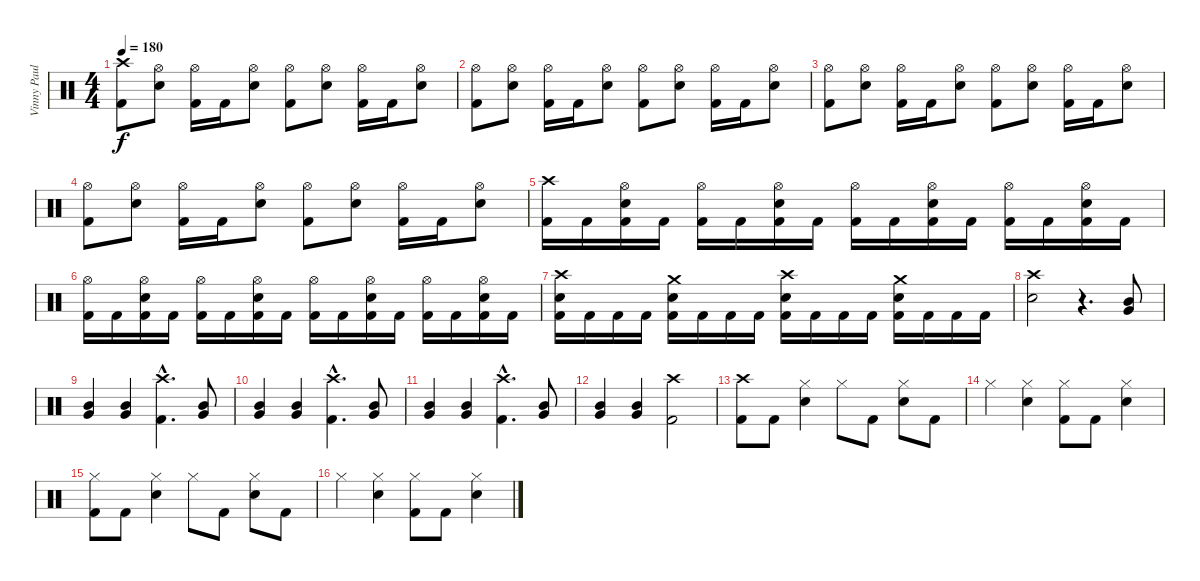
\track ("Vinny Paul" "Vinny Paul") {instrument percussion}
\staff {score}
\articulation defaults
\ts (4 4)
\tempo 180
\clef neutral
\ks c
("Crash high (hit)" "Kick (hit) 2").8{dy f} ("Hi-Hat (open)" "Electric Snare (hit)").8 ("Hi-Hat (open)" "Kick (hit) 2").16 "Kick (hit) 2".16 ("Hi-Hat (open)" "Electric Snare (hit)").8 ("Hi-Hat (open)" "Kick (hit) 2").8 ("Hi-Hat (open)" "Electric Snare (hit)").8 ("Hi-Hat (open)" "Kick (hit) 2").16 "Kick (hit) 2".16 ("Hi-Hat (open)" "Electric Snare (hit)").8 |
("Hi-Hat (open)" "Kick (hit) 2").8 ("Hi-Hat (open)" "Electric Snare (hit)").8 ("Hi-Hat (open)" "Kick (hit) 2").16 "Kick (hit) 2".16 ("Hi-Hat (open)" "Electric Snare (hit)").8 ("Hi-Hat (open)" "Kick (hit) 2").8 ("Hi-Hat (open)" "Electric Snare (hit)").8 ("Hi-Hat (open)" "Kick (hit) 2").16 "Kick (hit) 2".16 ("Hi-Hat (open)" "Electric Snare (hit)").8 |
("Hi-Hat (open)" "Kick (hit) 2").8 ("Hi-Hat (open)" "Electric Snare (hit)").8 ("Hi-Hat (open)" "Kick (hit) 2").16 "Kick (hit) 2".16 ("Hi-Hat (open)" "Electric Snare (hit)").8 ("Hi-Hat (open)" "Kick (hit) 2").8 ("Hi-Hat (open)" "Electric Snare (hit)").8 ("Hi-Hat (open)" "Kick (hit) 2").16 "Kick (hit) 2".16 ("Hi-Hat (open)" "Electric Snare (hit)").8 |
("Hi-Hat (open)" "Kick (hit) 2").8 ("Hi-Hat (open)" "Electric Snare (hit)").8 ("Hi-Hat (open)" "Kick (hit) 2").16 "Kick (hit) 2".16 ("Hi-Hat (open)" "Electric Snare (hit)").8 ("Hi-Hat (open)" "Kick (hit) 2").8 ("Hi-Hat (open)" "Electric Snare (hit)").8 ("Hi-Hat (open)" "Kick (hit) 2").16 "Kick (hit) 2".16 ("Hi-Hat (open)" "Electric Snare (hit)").8 |
("Crash high (hit)" "Kick (hit) 2").16 "Kick (hit) 2".16 ("Hi-Hat (open)" "Electric Snare (hit)" "Kick (hit) 2").16 "Kick (hit) 2".16 ("Hi-Hat (open)" "Kick (hit) 2").16 "Kick (hit) 2".16 ("Hi-Hat (open)" "Electric Snare (hit)" "Kick (hit) 2").16 "Kick (hit) 2".16 ("Hi-Hat (open)" "Kick (hit) 2").16 "Kick (hit) 2".16 ("Hi-Hat (open)" "Electric Snare (hit)" "Kick (hit) 2").16 "Kick (hit) 2".16 ("Hi-Hat (open)" "Kick (hit) 2").16 "Kick (hit) 2".16 ("Hi-Hat (open)" "Electric Snare (hit)" "Kick (hit) 2").16 "Kick (hit) 2".16 |
("Hi-Hat (open)" "Kick (hit) 2").16 "Kick (hit) 2".16 ("Hi-Hat (open)" "Electric Snare (hit)" "Kick (hit) 2").16 "Kick (hit) 2".16 ("Hi-Hat (open)" "Kick (hit) 2").16 "Kick (hit) 2".16 ("Hi-Hat (open)" "Electric Snare (hit)" "Kick (hit) 2").16 "Kick (hit) 2".16 ("Hi-Hat (open)" "Kick (hit) 2").16 "Kick (hit) 2".16 ("Hi-Hat (open)" "Electric Snare (hit)" "Kick (hit) 2").16 "Kick (hit) 2".16 ("Hi-Hat (open)" "Kick (hit) 2").16 "Kick (hit) 2".16 ("Hi-Hat (open)" "Electric Snare (hit)" "Kick (hit) 2").16 "Kick (hit) 2".16 |
("Crash high (hit)" "Electric Snare (hit)" "Kick (hit) 2").16 "Kick (hit) 2".16 "Kick (hit) 2".16 "Kick (hit) 2".16 ("Crash medium (hit)" "Electric Snare (hit)" "Kick (hit) 2").16 "Kick (hit) 2".16 "Kick (hit) 2".16 "Kick (hit) 2".16 ("Crash high (hit)" "Electric Snare (hit)" "Kick (hit) 2").16 "Kick (hit) 2".16 "Kick (hit) 2".16 "Kick (hit) 2".16 ("Crash medium (hit)" "Electric Snare (hit)" "Kick (hit) 2").16 "Kick (hit) 2".16 "Kick (hit) 2".16 "Kick (hit) 2".16 |
("Crash high (hit)" "Electric Snare (hit)").2 r.4{d} ("Mid Tom (hit)" "Very Low Tom (hit)").8 |
("Mid Tom (hit)" "Very Low Tom (hit)").4 ("Mid Tom (hit)" "Very Low Tom (hit)").4 ("Crash high (hit)"{hac} "Kick (hit) 2"{hac}).4{d} ("Mid Tom (hit)" "Very Low Tom (hit)").8 |
("Mid Tom (hit)" "Very Low Tom (hit)").4 ("Mid Tom (hit)" "Very Low Tom (hit)").4 ("Crash high (hit)"{hac} "Kick (hit) 2"{hac}).4{d} ("Mid Tom (hit)" "Very Low Tom (hit)").8 |
("Mid Tom (hit)" "Very Low Tom (hit)").4 ("Mid Tom (hit)" "Very Low Tom (hit)").4 ("Crash high (hit)"{hac} "Kick (hit) 2"{hac}).4{d} ("Mid Tom (hit)" "Very Low Tom (hit)").8 |
("Mid Tom (hit)" "Very Low Tom (hit)").4 ("Mid Tom (hit)" "Very Low Tom (hit)").4 ("Crash high (hit)" "Kick (hit) 2").2 |
("Crash high (hit)" "Kick (hit) 2").8 "Kick (hit) 2".8 ("Hi-Hat (closed)" "Electric Snare (hit)").4 "Hi-Hat (closed)".8 "Kick (hit) 2".8 ("Hi-Hat (closed)" "Electric Snare (hit)").8 "Kick (hit) 2".8 |
"Hi-Hat (closed)".4 ("Hi-Hat (closed)" "Electric Snare (hit)").4 ("Hi-Hat (closed)" "Kick (hit) 2").8 "Kick (hit) 2".8 ("Hi-Hat (closed)" "Electric Snare (hit)").4 |
("Hi-Hat (closed)" "Kick (hit) 2").8 "Kick (hit) 2".8 ("Hi-Hat (closed)" "Electric Snare (hit)").4 "Hi-Hat (closed)".8 "Kick (hit) 2".8 ("Hi-Hat (closed)" "Electric Snare (hit)").8 "Kick (hit) 2".8 |
"Hi-Hat (closed)".4 ("Hi-Hat (closed)" "Electric Snare (hit)").4 ("Hi-Hat (closed)" "Kick (hit) 2").8 "Kick (hit) 2".8 ("Hi-Hat (closed)" "Electric Snare (hit)").4
